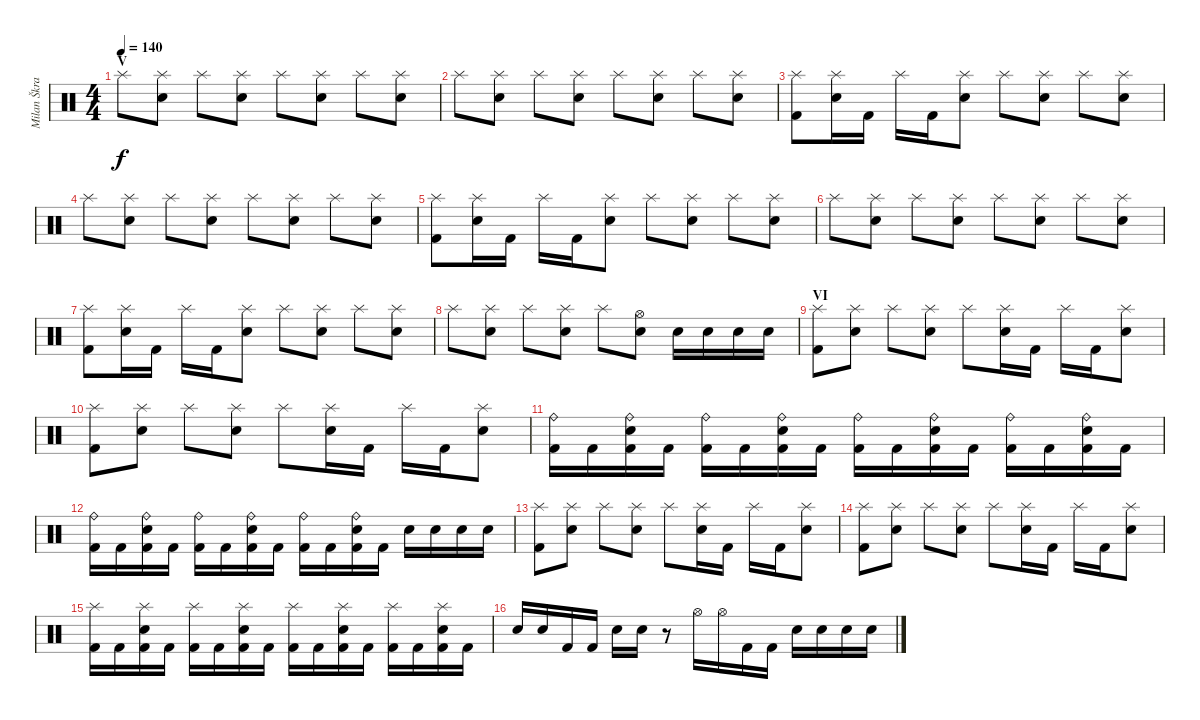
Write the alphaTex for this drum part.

\track ("Milan Škrabal" "Milan Škra") {instrument percussion}
\staff {score}
\articulation defaults
\ts (4 4)
\section ("" "V")
\tempo 140
\clef neutral
\ks c "Splash (hit)".8{dy f}
("Splash (hit)" "Electric Snare (hit)").8 "Splash (hit)".8 ("Splash (hit)" "Electric Snare (hit)").8 "Splash (hit)".8 ("Splash (hit)" "Electric Snare (hit)").8 "Splash (hit)".8 ("Splash (hit)" "Electric Snare (hit)").8 |
"Splash (hit)".8 ("Splash (hit)" "Electric Snare (hit)").8 "Splash (hit)".8 ("Splash (hit)" "Electric Snare (hit)").8 "Splash (hit)".8 ("Splash (hit)" "Electric Snare (hit)").8 "Splash (hit)".8 ("Splash (hit)" "Electric Snare (hit)").8 |
("Splash (hit)" "Kick (hit) 2").8 ("Splash (hit)" "Electric Snare (hit)").16 "Kick (hit) 2".16 "Splash (hit)".16 "Kick (hit) 2".16 ("Splash (hit)" "Electric Snare (hit)").8 "Splash (hit)".8 ("Splash (hit)" "Electric Snare (hit)").8 "Splash (hit)".8 ("Splash (hit)" "Electric Snare (hit)").8 |
"Splash (hit)".8 ("Splash (hit)" "Electric Snare (hit)").8 "Splash (hit)".8 ("Splash (hit)" "Electric Snare (hit)").8 "Splash (hit)".8 ("Splash (hit)" "Electric Snare (hit)").8 "Splash (hit)".8 ("Splash (hit)" "Electric Snare (hit)").8 |
("Splash (hit)" "Kick (hit) 2").8 ("Splash (hit)" "Electric Snare (hit)").16 "Kick (hit) 2".16 "Splash (hit)".16 "Kick (hit) 2".16 ("Splash (hit)" "Electric Snare (hit)").8 "Splash (hit)".8 ("Splash (hit)" "Electric Snare (hit)").8 "Splash (hit)".8 ("Splash (hit)" "Electric Snare (hit)").8 |
"Splash (hit)".8 ("Splash (hit)" "Electric Snare (hit)").8 "Splash (hit)".8 ("Splash (hit)" "Electric Snare (hit)").8 "Splash (hit)".8 ("Splash (hit)" "Electric Snare (hit)").8 "Splash (hit)".8 ("Splash (hit)" "Electric Snare (hit)").8 |
("Splash (hit)" "Kick (hit) 2").8 ("Splash (hit)" "Electric Snare (hit)").16 "Kick (hit) 2".16 "Splash (hit)".16 "Kick (hit) 2".16 ("Splash (hit)" "Electric Snare (hit)").8 "Splash (hit)".8 ("Splash (hit)" "Electric Snare (hit)").8 "Splash (hit)".8 ("Splash (hit)" "Electric Snare (hit)").8 |
"Splash (hit)".8 ("Splash (hit)" "Electric Snare (hit)").8 "Splash (hit)".8 ("Splash (hit)" "Electric Snare (hit)").8 "Splash (hit)".8 ("Hi-Hat (open)" "Electric Snare (hit)").8 "Electric Snare (hit)".16 "Electric Snare (hit)".16 "Electric Snare (hit)".16 "Electric Snare (hit)".16 |
\section ("" "VI")
("Splash (hit)" "Kick (hit) 2").8 ("Splash (hit)" "Electric Snare (hit)").8 "Splash (hit)".8 ("Splash (hit)" "Electric Snare (hit)").8 "Splash (hit)".8 ("Splash (hit)" "Electric Snare (hit)").16 "Kick (hit) 2".16 "Splash (hit)".16 "Kick (hit) 2".16 ("Splash (hit)" "Electric Snare (hit)").8 |
("Splash (hit)" "Kick (hit) 2").8 ("Splash (hit)" "Electric Snare (hit)").8 "Splash (hit)".8 ("Splash (hit)" "Electric Snare (hit)").8 "Splash (hit)".8 ("Splash (hit)" "Electric Snare (hit)").16 "Kick (hit) 2".16 "Splash (hit)".16 "Kick (hit) 2".16 ("Splash (hit)" "Electric Snare (hit)").8 |
("Ride (bell)" "Kick (hit) 2").16 "Kick (hit) 2".16 ("Ride (bell)" "Electric Snare (hit)" "Kick (hit) 2").16 "Kick (hit) 2".16 ("Ride (bell)" "Kick (hit) 2").16 "Kick (hit) 2".16 ("Ride (bell)" "Electric Snare (hit)" "Kick (hit) 2").16 "Kick (hit) 2".16 ("Ride (bell)" "Kick (hit) 2").16 "Kick (hit) 2".16 ("Ride (bell)" "Electric Snare (hit)" "Kick (hit) 2").16 "Kick (hit) 2".16 ("Ride (bell)" "Kick (hit) 2").16 "Kick (hit) 2".16 ("Ride (bell)" "Electric Snare (hit)" "Kick (hit) 2").16 "Kick (hit) 2".16 |
("Ride (bell)" "Kick (hit) 2").16 "Kick (hit) 2".16 ("Ride (bell)" "Electric Snare (hit)" "Kick (hit) 2").16 "Kick (hit) 2".16 ("Ride (bell)" "Kick (hit) 2").16 "Kick (hit) 2".16 ("Ride (bell)" "Electric Snare (hit)" "Kick (hit) 2").16 "Kick (hit) 2".16 ("Ride (bell)" "Kick (hit) 2").16 "Kick (hit) 2".16 ("Ride (bell)" "Electric Snare (hit)" "Kick (hit) 2").16 "Kick (hit) 2".16 "Electric Snare (hit)".16 "Electric Snare (hit)".16 "Electric Snare (hit)".16 "Electric Snare (hit)".16 |
("Splash (hit)" "Kick (hit) 2").8 ("Splash (hit)" "Electric Snare (hit)").8 "Splash (hit)".8 ("Splash (hit)" "Electric Snare (hit)").8 "Splash (hit)".8 ("Splash (hit)" "Electric Snare (hit)").16 "Kick (hit) 2".16 "Splash (hit)".16 "Kick (hit) 2".16 ("Splash (hit)" "Electric Snare (hit)").8 |
("Splash (hit)" "Kick (hit) 2").8 ("Splash (hit)" "Electric Snare (hit)").8 "Splash (hit)".8 ("Splash (hit)" "Electric Snare (hit)").8 "Splash (hit)".8 ("Splash (hit)" "Electric Snare (hit)").16 "Kick (hit) 2".16 "Splash (hit)".16 "Kick (hit) 2".16 ("Splash (hit)" "Electric Snare (hit)").8 |
("Splash (hit)" "Kick (hit) 2").16 "Kick (hit) 2".16 ("Splash (hit)" "Electric Snare (hit)" "Kick (hit) 2").16 "Kick (hit) 2".16 ("Splash (hit)" "Kick (hit) 2").16 "Kick (hit) 2".16 ("Splash (hit)" "Electric Snare (hit)" "Kick (hit) 2").16 "Kick (hit) 2".16 ("Splash (hit)" "Kick (hit) 2").16 "Kick (hit) 2".16 ("Splash (hit)" "Electric Snare (hit)" "Kick (hit) 2").16 "Kick (hit) 2".16 ("Splash (hit)" "Kick (hit) 2").16 "Kick (hit) 2".16 ("Splash (hit)" "Electric Snare (hit)" "Kick (hit) 2").16 "Kick (hit) 2".16 |
"Electric Snare (hit)".16 "Electric Snare (hit)".16 "Kick (hit) 2".16 "Kick (hit) 2".16 "Electric Snare (hit)".16 "Electric Snare (hit)".16 r.8 "Hi-Hat (open)".16 "Hi-Hat (open)".16 "Kick (hit) 2".16 "Kick (hit) 2".16 "Electric Snare (hit)".16 "Electric Snare (hit)".16 "Electric Snare (hit)".16 "Electric Snare (hit)".16
